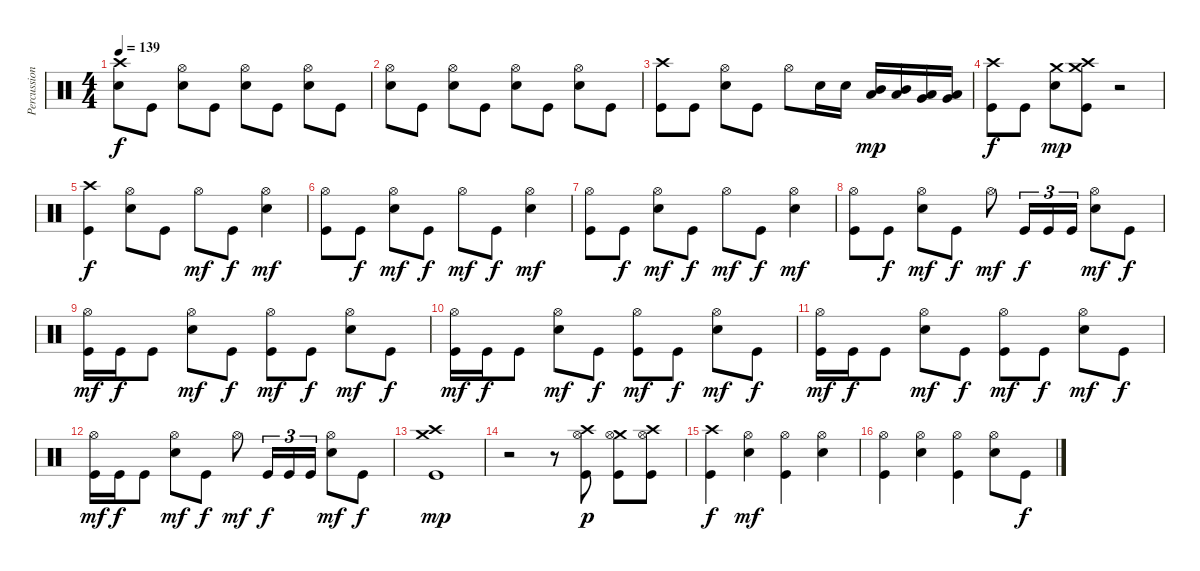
\track ("Percussions" "Percussion") {instrument percussion}
\staff {score}
\articulation defaults
\ts (4 4)
\tempo 139
\clef neutral
\ks c
("Electric Snare (hit)" "Crash high (hit)").8{dy f} "Kick (hit)".8 ("Electric Snare (hit)" "Hi-Hat (open)").8 "Kick (hit)".8 ("Electric Snare (hit)" "Hi-Hat (open)").8 "Kick (hit)".8 ("Electric Snare (hit)" "Hi-Hat (open)").8 "Kick (hit)".8 |
("Electric Snare (hit)" "Hi-Hat (open)").8 "Kick (hit)".8 ("Electric Snare (hit)" "Hi-Hat (open)").8 "Kick (hit)".8 ("Electric Snare (hit)" "Hi-Hat (open)").8 "Kick (hit)".8 ("Electric Snare (hit)" "Hi-Hat (open)").8 "Kick (hit)".8 |
("Kick (hit)" "Crash high (hit)").8 "Kick (hit)".8 ("Electric Snare (hit)" "Hi-Hat (open)").8 "Kick (hit)".8 "Hi-Hat (open)".8 "Electric Snare (hit)".16 "Electric Snare (hit)".16 ("Low Tom (hit)" "Mid Tom (hit)").16{dy mp} ("Low Tom (hit)" "Mid Tom (hit)").16 ("Very Low Tom (hit)" "Low Tom (hit)").16 ("Very Low Tom (hit)" "Low Tom (hit)").16 |
("Kick (hit)" "Crash high (hit)").8{dy f} "Kick (hit)".8 ("Electric Snare (hit)" "Crash medium (hit)").8{dy mp} ("Kick (hit)" "Crash high (hit)" "Crash medium (hit)").8 r.2 |
("Kick (hit)" "Crash high (hit)").4{dy f} ("Electric Snare (hit)" "Hi-Hat (open)").8 "Kick (hit)".8 "Hi-Hat (open)".8{dy mf} "Kick (hit)".8{dy f} ("Electric Snare (hit)" "Hi-Hat (open)").4{dy mf} |
("Kick (hit)" "Hi-Hat (open)").8 "Kick (hit)".8{dy f} ("Electric Snare (hit)" "Hi-Hat (open)").8{dy mf} "Kick (hit)".8{dy f} "Hi-Hat (open)".8{dy mf} "Kick (hit)".8{dy f} ("Electric Snare (hit)" "Hi-Hat (open)").4{dy mf} |
("Kick (hit)" "Hi-Hat (open)").8 "Kick (hit)".8{dy f} ("Electric Snare (hit)" "Hi-Hat (open)").8{dy mf} "Kick (hit)".8{dy f} "Hi-Hat (open)".8{dy mf} "Kick (hit)".8{dy f} ("Electric Snare (hit)" "Hi-Hat (open)").4{dy mf} |
("Kick (hit)" "Hi-Hat (open)").8 "Kick (hit)".8{dy f} ("Electric Snare (hit)" "Hi-Hat (open)").8{dy mf} "Kick (hit)".8{dy f} "Hi-Hat (open)".8{dy mf} "Kick (hit)".16{tu (3 2) dy f} "Kick (hit)".16{tu (3 2)} "Kick (hit)".16{tu (3 2)} ("Electric Snare (hit)" "Hi-Hat (open)").8{dy mf} "Kick (hit)".8{dy f} |
("Kick (hit)" "Hi-Hat (open)").16{dy mf} "Kick (hit)".16{dy f} "Kick (hit)".8 ("Electric Snare (hit)" "Hi-Hat (open)").8{dy mf} "Kick (hit)".8{dy f} ("Kick (hit)" "Hi-Hat (open)").8{dy mf} "Kick (hit)".8{dy f} ("Electric Snare (hit)" "Hi-Hat (open)").8{dy mf} "Kick (hit)".8{dy f} |
("Kick (hit)" "Hi-Hat (open)").16{dy mf} "Kick (hit)".16{dy f} "Kick (hit)".8 ("Electric Snare (hit)" "Hi-Hat (open)").8{dy mf} "Kick (hit)".8{dy f} ("Kick (hit)" "Hi-Hat (open)").8{dy mf} "Kick (hit)".8{dy f} ("Electric Snare (hit)" "Hi-Hat (open)").8{dy mf} "Kick (hit)".8{dy f} |
("Kick (hit)" "Hi-Hat (open)").16{dy mf} "Kick (hit)".16{dy f} "Kick (hit)".8 ("Electric Snare (hit)" "Hi-Hat (open)").8{dy mf} "Kick (hit)".8{dy f} ("Kick (hit)" "Hi-Hat (open)").8{dy mf} "Kick (hit)".8{dy f} ("Electric Snare (hit)" "Hi-Hat (open)").8{dy mf} "Kick (hit)".8{dy f} |
("Kick (hit)" "Hi-Hat (open)").16{dy mf} "Kick (hit)".16{dy f} "Kick (hit)".8 ("Electric Snare (hit)" "Hi-Hat (open)").8{dy mf} "Kick (hit)".8{dy f} "Hi-Hat (open)".8{dy mf} "Kick (hit)".16{tu (3 2) dy f} "Kick (hit)".16{tu (3 2)} "Kick (hit)".16{tu (3 2)} ("Electric Snare (hit)" "Hi-Hat (open)").8{dy mf} "Kick (hit)".8{dy f} |
("Kick (hit)" "Crash high (hit)" "Crash medium (hit)").1{dy mp} |
r.2 r.8 ("Kick (hit)" "Crash high (hit)" "Hi-Hat (open)").8{dy p} ("Kick (hit)" "Crash medium (hit)" "Hi-Hat (open)").8 ("Kick (hit)" "Crash high (hit)" "Hi-Hat (open)").8 |
("Kick (hit)" "Crash high (hit)").4{dy f} ("Electric Snare (hit)" "Hi-Hat (open)").4{dy mf} ("Kick (hit)" "Hi-Hat (open)").4 ("Electric Snare (hit)" "Hi-Hat (open)").4 |
("Kick (hit)" "Hi-Hat (open)").4 ("Electric Snare (hit)" "Hi-Hat (open)").4 ("Kick (hit)" "Hi-Hat (open)").4 ("Electric Snare (hit)" "Hi-Hat (open)").8 "Kick (hit)".8{dy f}
